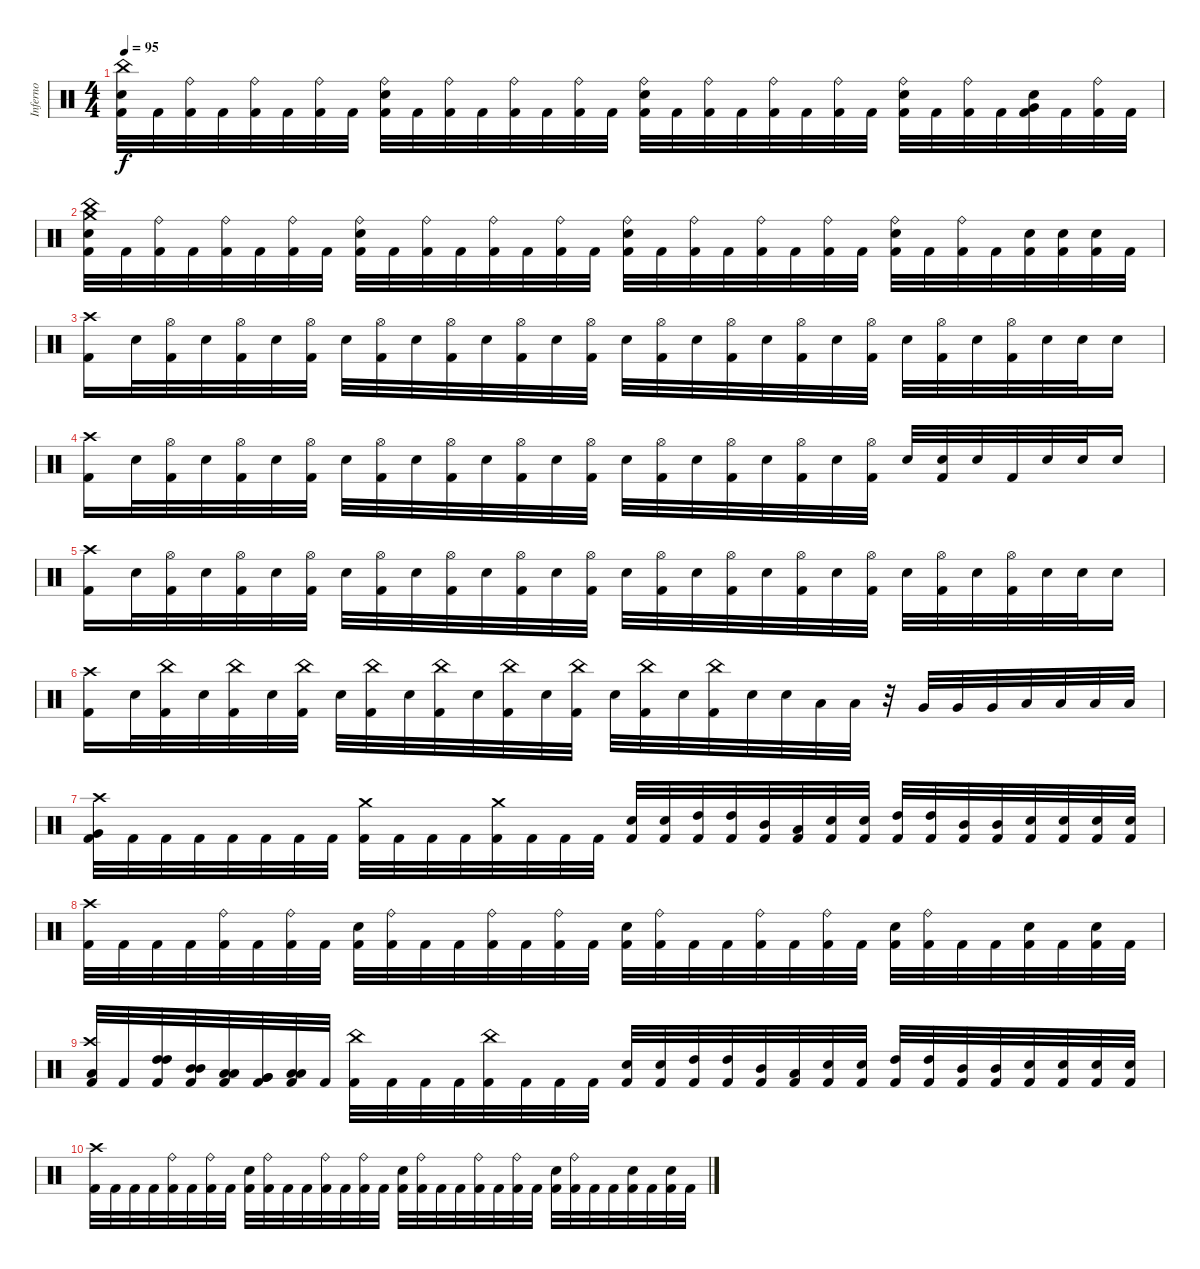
\track ("Inferno" "Inferno") {instrument percussion}
\staff {score}
\articulation defaults
\ts (4 4)
\tempo 95
\clef neutral
\ks c
("China (hit)" "Electric Snare (hit)" "Kick (hit) 2").32{dy f} "Kick (hit) 2".32 ("Ride (bell)" "Kick (hit) 2").32 "Kick (hit) 2".32 ("Ride (bell)" "Kick (hit) 2").32 "Kick (hit) 2".32 ("Ride (bell)" "Kick (hit) 2").32 "Kick (hit) 2".32 ("Ride (bell)" "Electric Snare (hit)" "Kick (hit) 2").32 "Kick (hit) 2".32 ("Ride (bell)" "Kick (hit) 2").32 "Kick (hit) 2".32 ("Ride (bell)" "Kick (hit) 2").32 "Kick (hit) 2".32 ("Ride (bell)" "Kick (hit) 2").32 "Kick (hit) 2".32 ("Ride (bell)" "Electric Snare (hit)" "Kick (hit) 2").32 "Kick (hit) 2".32 ("Ride (bell)" "Kick (hit) 2").32 "Kick (hit) 2".32 ("Ride (bell)" "Kick (hit) 2").32 "Kick (hit) 2".32 ("Ride (bell)" "Kick (hit) 2").32 "Kick (hit) 2".32 ("Ride (bell)" "Electric Snare (hit)" "Kick (hit) 2").32 "Kick (hit) 2".32 ("Ride (bell)" "Kick (hit) 2").32 "Kick (hit) 2".32 ("Very Low Tom (hit)" "Electric Snare (hit)" "Kick (hit) 2").32 "Kick (hit) 2".32 ("Ride (bell)" "Kick (hit) 2").32 "Kick (hit) 2".32 |
("Crash medium (hit)" "China (hit)" "Electric Snare (hit)" "Kick (hit) 2").32 "Kick (hit) 2".32 ("Ride (bell)" "Kick (hit) 2").32 "Kick (hit) 2".32 ("Ride (bell)" "Kick (hit) 2").32 "Kick (hit) 2".32 ("Ride (bell)" "Kick (hit) 2").32 "Kick (hit) 2".32 ("Ride (bell)" "Electric Snare (hit)" "Kick (hit) 2").32 "Kick (hit) 2".32 ("Ride (bell)" "Kick (hit) 2").32 "Kick (hit) 2".32 ("Ride (bell)" "Kick (hit) 2").32 "Kick (hit) 2".32 ("Ride (bell)" "Kick (hit) 2").32 "Kick (hit) 2".32 ("Ride (bell)" "Electric Snare (hit)" "Kick (hit) 2").32 "Kick (hit) 2".32 ("Ride (bell)" "Kick (hit) 2").32 "Kick (hit) 2".32 ("Ride (bell)" "Kick (hit) 2").32 "Kick (hit) 2".32 ("Ride (bell)" "Kick (hit) 2").32 "Kick (hit) 2".32 ("Ride (bell)" "Electric Snare (hit)" "Kick (hit) 2").32 "Kick (hit) 2".32 ("Ride (bell)" "Kick (hit) 2").32 "Kick (hit) 2".32 ("Electric Snare (hit)" "Kick (hit) 2").32 ("Electric Snare (hit)" "Kick (hit) 2").32 ("Electric Snare (hit)" "Kick (hit) 2").32 "Kick (hit) 2".32 |
("Crash high (hit)" "Kick (hit) 2").16 "Electric Snare (hit)".32 ("Hi-Hat (open)" "Kick (hit) 2").32 "Electric Snare (hit)".32 ("Hi-Hat (open)" "Kick (hit) 2").32 "Electric Snare (hit)".32 ("Hi-Hat (open)" "Kick (hit) 2").32 "Electric Snare (hit)".32 ("Hi-Hat (open)" "Kick (hit) 2").32 "Electric Snare (hit)".32 ("Hi-Hat (open)" "Kick (hit) 2").32 "Electric Snare (hit)".32 ("Hi-Hat (open)" "Kick (hit) 2").32 "Electric Snare (hit)".32 ("Hi-Hat (open)" "Kick (hit) 2").32 "Electric Snare (hit)".32 ("Hi-Hat (open)" "Kick (hit) 2").32 "Electric Snare (hit)".32 ("Hi-Hat (open)" "Kick (hit) 2").32 "Electric Snare (hit)".32 ("Hi-Hat (open)" "Kick (hit) 2").32 "Electric Snare (hit)".32 ("Hi-Hat (open)" "Kick (hit) 2").32 "Electric Snare (hit)".32 ("Hi-Hat (open)" "Kick (hit) 2").32 "Electric Snare (hit)".32 ("Hi-Hat (open)" "Kick (hit) 2").32 "Electric Snare (hit)".32 "Electric Snare (hit)".32 "Electric Snare (hit)".16 |
("Crash high (hit)" "Kick (hit) 2").16 "Electric Snare (hit)".32 ("Hi-Hat (open)" "Kick (hit) 2").32 "Electric Snare (hit)".32 ("Hi-Hat (open)" "Kick (hit) 2").32 "Electric Snare (hit)".32 ("Hi-Hat (open)" "Kick (hit) 2").32 "Electric Snare (hit)".32 ("Hi-Hat (open)" "Kick (hit) 2").32 "Electric Snare (hit)".32 ("Hi-Hat (open)" "Kick (hit) 2").32 "Electric Snare (hit)".32 ("Hi-Hat (open)" "Kick (hit) 2").32 "Electric Snare (hit)".32 ("Hi-Hat (open)" "Kick (hit) 2").32 "Electric Snare (hit)".32 ("Hi-Hat (open)" "Kick (hit) 2").32 "Electric Snare (hit)".32 ("Hi-Hat (open)" "Kick (hit) 2").32 "Electric Snare (hit)".32 ("Hi-Hat (open)" "Kick (hit) 2").32 "Electric Snare (hit)".32 ("Hi-Hat (open)" "Kick (hit) 2").32 "Electric Snare (hit)".32 ("Electric Snare (hit)" "Kick (hit) 2").32 "Electric Snare (hit)".32 "Kick (hit) 2".32 "Electric Snare (hit)".32 "Electric Snare (hit)".32 "Electric Snare (hit)".16 |
("Crash high (hit)" "Kick (hit) 2").16 "Electric Snare (hit)".32 ("Hi-Hat (open)" "Kick (hit) 2").32 "Electric Snare (hit)".32 ("Hi-Hat (open)" "Kick (hit) 2").32 "Electric Snare (hit)".32 ("Hi-Hat (open)" "Kick (hit) 2").32 "Electric Snare (hit)".32 ("Hi-Hat (open)" "Kick (hit) 2").32 "Electric Snare (hit)".32 ("Hi-Hat (open)" "Kick (hit) 2").32 "Electric Snare (hit)".32 ("Hi-Hat (open)" "Kick (hit) 2").32 "Electric Snare (hit)".32 ("Hi-Hat (open)" "Kick (hit) 2").32 "Electric Snare (hit)".32 ("Hi-Hat (open)" "Kick (hit) 2").32 "Electric Snare (hit)".32 ("Hi-Hat (open)" "Kick (hit) 2").32 "Electric Snare (hit)".32 ("Hi-Hat (open)" "Kick (hit) 2").32 "Electric Snare (hit)".32 ("Hi-Hat (open)" "Kick (hit) 2").32 "Electric Snare (hit)".32 ("Hi-Hat (open)" "Kick (hit) 2").32 "Electric Snare (hit)".32 ("Hi-Hat (open)" "Kick (hit) 2").32 "Electric Snare (hit)".32 "Electric Snare (hit)".32 "Electric Snare (hit)".16 |
("Crash high (hit)" "Kick (hit) 2").16 "Electric Snare (hit)".32 ("China (hit)" "Kick (hit) 2").32 "Electric Snare (hit)".32 ("China (hit)" "Kick (hit) 2").32 "Electric Snare (hit)".32 ("China (hit)" "Kick (hit) 2").32 "Electric Snare (hit)".32 ("China (hit)" "Kick (hit) 2").32 "Electric Snare (hit)".32 ("China (hit)" "Kick (hit) 2").32 "Electric Snare (hit)".32 ("China (hit)" "Kick (hit) 2").32 "Electric Snare (hit)".32 ("China (hit)" "Kick (hit) 2").32 "Electric Snare (hit)".32 ("China (hit)" "Kick (hit) 2").32 "Electric Snare (hit)".32 ("China (hit)" "Kick (hit) 2").32 "Electric Snare (hit)".32 "Electric Snare (hit)".32 "Low Tom (hit)".32 "Low Tom (hit)".32 r.32 "Very Low Tom (hit)".32 "Very Low Tom (hit)".32 "Very Low Tom (hit)".32 "Low Floor Tom (hit)".32 "Low Floor Tom (hit)".32 "Low Floor Tom (hit)".32 "Low Floor Tom (hit)".32 |
("Crash high (hit)" "Very Low Tom (hit)" "Kick (hit) 2").32 "Kick (hit) 2".32 "Kick (hit) 2".32 "Kick (hit) 2".32 "Kick (hit) 2".32 "Kick (hit) 2".32 "Kick (hit) 2".32 "Kick (hit) 2".32 ("Crash medium (hit)" "Kick (hit) 2").32 "Kick (hit) 2".32 "Kick (hit) 2".32 "Kick (hit) 2".32 ("Crash medium (hit)" "Kick (hit) 2").32 "Kick (hit) 2".32 "Kick (hit) 2".32 "Kick (hit) 2".32 ("Electric Snare (hit)" "Kick (hit) 2").32 ("Electric Snare (hit)" "Kick (hit) 2").32 ("High Tom (hit)" "Kick (hit) 2").32 ("High Tom (hit)" "Kick (hit) 2").32 ("Mid Tom (hit)" "Kick (hit) 2").32 ("Low Tom (hit)" "Kick (hit) 2").32 ("Electric Snare (hit)" "Kick (hit) 2").32 ("Electric Snare (hit)" "Kick (hit) 2").32 ("High Tom (hit)" "Kick (hit) 2").32 ("High Tom (hit)" "Kick (hit) 2").32 ("Mid Tom (hit)" "Kick (hit) 2").32 ("Mid Tom (hit)" "Kick (hit) 2").32 ("Electric Snare (hit)" "Kick (hit) 2").32 ("Electric Snare (hit)" "Kick (hit) 2").32 ("Electric Snare (hit)" "Kick (hit) 2").32 ("Electric Snare (hit)" "Kick (hit) 2").32 |
("Crash high (hit)" "Kick (hit) 2").32 "Kick (hit) 2".32 "Kick (hit) 2".32 "Kick (hit) 2".32 ("Ride (bell)" "Kick (hit) 2").32 "Kick (hit) 2".32 ("Ride (bell)" "Kick (hit) 2").32 "Kick (hit) 2".32 ("Electric Snare (hit)" "Kick (hit) 2").32 ("Ride (bell)" "Kick (hit) 2").32 "Kick (hit) 2".32 "Kick (hit) 2".32 ("Ride (bell)" "Kick (hit) 2").32 "Kick (hit) 2".32 ("Ride (bell)" "Kick (hit) 2").32 "Kick (hit) 2".32 ("Electric Snare (hit)" "Kick (hit) 2").32 ("Ride (bell)" "Kick (hit) 2").32 "Kick (hit) 2".32 "Kick (hit) 2".32 ("Ride (bell)" "Kick (hit) 2").32 "Kick (hit) 2".32 ("Ride (bell)" "Kick (hit) 2").32 "Kick (hit) 2".32 ("Electric Snare (hit)" "Kick (hit) 2").32 ("Ride (bell)" "Kick (hit) 2").32 "Kick (hit) 2".32 "Kick (hit) 2".32 ("Electric Snare (hit)" "Kick (hit) 2").32 "Kick (hit) 2".32 ("Electric Snare (hit)" "Kick (hit) 2").32 "Kick (hit) 2".32 |
("Crash high (hit)" "Low Floor Tom (hit)" "Kick (hit) 2").32 "Kick (hit) 2".32 ("High Tom (hit)" "High Tom (hit)" "Kick (hit) 2").32 ("Mid Tom (hit)" "Mid Tom (hit)" "Kick (hit) 2").32 ("Low Tom (hit)" "Low Tom (hit)" "Kick (hit) 2").32 ("Very Low Tom (hit)" "Very Low Tom (hit)" "Kick (hit) 2").32 ("Low Floor Tom (hit)" "Low Floor Tom (hit)" "Kick (hit) 2").32 "Kick (hit) 2".32 ("China (hit)" "Kick (hit) 2").32 "Kick (hit) 2".32 "Kick (hit) 2".32 "Kick (hit) 2".32 ("China (hit)" "Kick (hit) 2").32 "Kick (hit) 2".32 "Kick (hit) 2".32 "Kick (hit) 2".32 ("Electric Snare (hit)" "Kick (hit) 2").32 ("Electric Snare (hit)" "Kick (hit) 2").32 ("High Tom (hit)" "Kick (hit) 2").32 ("High Tom (hit)" "Kick (hit) 2").32 ("Mid Tom (hit)" "Kick (hit) 2").32 ("Low Tom (hit)" "Kick (hit) 2").32 ("Electric Snare (hit)" "Kick (hit) 2").32 ("Electric Snare (hit)" "Kick (hit) 2").32 ("High Tom (hit)" "Kick (hit) 2").32 ("High Tom (hit)" "Kick (hit) 2").32 ("Mid Tom (hit)" "Kick (hit) 2").32 ("Mid Tom (hit)" "Kick (hit) 2").32 ("Electric Snare (hit)" "Kick (hit) 2").32 ("Electric Snare (hit)" "Kick (hit) 2").32 ("Electric Snare (hit)" "Kick (hit) 2").32 ("Electric Snare (hit)" "Kick (hit) 2").32 |
("Crash high (hit)" "Kick (hit) 2").32 "Kick (hit) 2".32 "Kick (hit) 2".32 "Kick (hit) 2".32 ("Ride (bell)" "Kick (hit) 2").32 "Kick (hit) 2".32 ("Ride (bell)" "Kick (hit) 2").32 "Kick (hit) 2".32 ("Electric Snare (hit)" "Kick (hit) 2").32 ("Ride (bell)" "Kick (hit) 2").32 "Kick (hit) 2".32 "Kick (hit) 2".32 ("Ride (bell)" "Kick (hit) 2").32 "Kick (hit) 2".32 ("Ride (bell)" "Kick (hit) 2").32 "Kick (hit) 2".32 ("Electric Snare (hit)" "Kick (hit) 2").32 ("Ride (bell)" "Kick (hit) 2").32 "Kick (hit) 2".32 "Kick (hit) 2".32 ("Ride (bell)" "Kick (hit) 2").32 "Kick (hit) 2".32 ("Ride (bell)" "Kick (hit) 2").32 "Kick (hit) 2".32 ("Electric Snare (hit)" "Kick (hit) 2").32 ("Ride (bell)" "Kick (hit) 2").32 "Kick (hit) 2".32 "Kick (hit) 2".32 ("Electric Snare (hit)" "Kick (hit) 2").32 "Kick (hit) 2".32 ("Electric Snare (hit)" "Kick (hit) 2").32 "Kick (hit) 2".32
